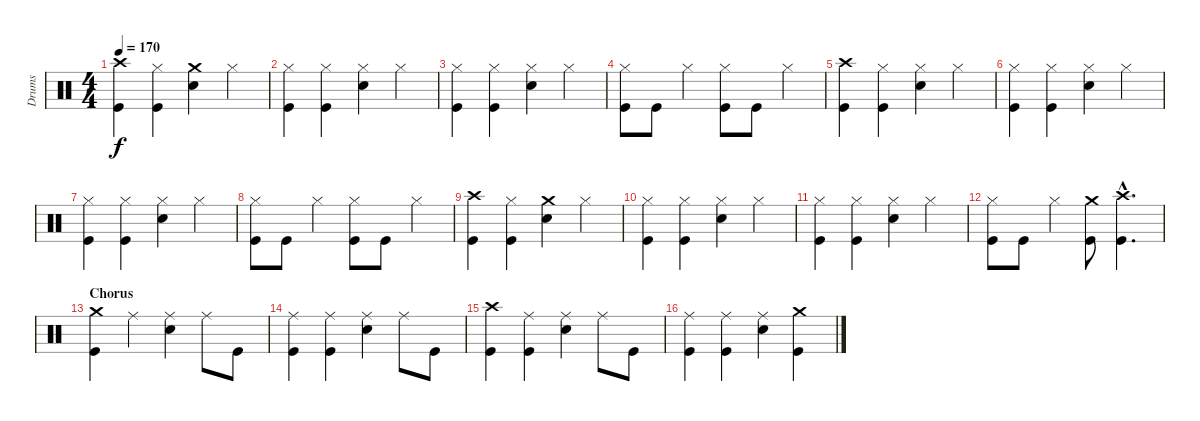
\track ("Drums" "Drums") {instrument percussion}
\staff {score}
\articulation defaults
\ts (4 4)
\tempo 170
\clef neutral
\ks c
("Crash high (hit)" "Kick (hit)").4{dy f} ("Hi-Hat (closed)" "Kick (hit)").4 ("Crash medium (hit)" "Snare (hit) 2").4 "Hi-Hat (closed)".4 |
("Hi-Hat (closed)" "Kick (hit)").4 ("Hi-Hat (closed)" "Kick (hit)").4 ("Hi-Hat (closed)" "Snare (hit) 2").4 "Hi-Hat (closed)".4 |
("Hi-Hat (closed)" "Kick (hit)").4 ("Hi-Hat (closed)" "Kick (hit)").4 ("Hi-Hat (closed)" "Snare (hit) 2").4 "Hi-Hat (closed)".4 |
("Hi-Hat (closed)" "Kick (hit)").8 "Kick (hit)".8 "Hi-Hat (closed)".4 ("Hi-Hat (closed)" "Kick (hit)").8 "Kick (hit)".8 "Hi-Hat (closed)".4 |
("Crash high (hit)" "Kick (hit)").4 ("Hi-Hat (closed)" "Kick (hit)").4 ("Hi-Hat (closed)" "Snare (hit) 2").4 "Hi-Hat (closed)".4 |
("Hi-Hat (closed)" "Kick (hit)").4 ("Hi-Hat (closed)" "Kick (hit)").4 ("Hi-Hat (closed)" "Snare (hit) 2").4 "Hi-Hat (closed)".4 |
("Hi-Hat (closed)" "Kick (hit)").4 ("Hi-Hat (closed)" "Kick (hit)").4 ("Hi-Hat (closed)" "Snare (hit) 2").4 "Hi-Hat (closed)".4 |
("Hi-Hat (closed)" "Kick (hit)").8 "Kick (hit)".8 "Hi-Hat (closed)".4 ("Hi-Hat (closed)" "Kick (hit)").8 "Kick (hit)".8 "Hi-Hat (closed)".4 |
("Crash high (hit)" "Kick (hit)").4 ("Hi-Hat (closed)" "Kick (hit)").4 ("Crash medium (hit)" "Snare (hit) 2").4 "Hi-Hat (closed)".4 |
("Hi-Hat (closed)" "Kick (hit)").4 ("Hi-Hat (closed)" "Kick (hit)").4 ("Hi-Hat (closed)" "Snare (hit) 2").4 "Hi-Hat (closed)".4 |
("Hi-Hat (closed)" "Kick (hit)").4 ("Hi-Hat (closed)" "Kick (hit)").4 ("Hi-Hat (closed)" "Snare (hit) 2").4 "Hi-Hat (closed)".4 |
("Hi-Hat (closed)" "Kick (hit)").8 "Kick (hit)".8 "Hi-Hat (closed)".4 ("Crash medium (hit)" "Kick (hit)").8 ("Crash high (hit)"{hac} "Kick (hit)"{hac}).4{d} |
\section ("" "Chorus")
("Crash medium (hit)" "Kick (hit)").4 "Ride (middle)".4 ("Ride (middle)" "Snare (hit) 2").4 "Ride (middle)".8 "Kick (hit)".8 |
("Ride (middle)" "Kick (hit)").4 ("Ride (middle)" "Kick (hit)").4 ("Ride (middle)" "Snare (hit) 2").4 "Ride (middle)".8 "Kick (hit)".8 |
("Crash high (hit)" "Kick (hit)").4 ("Ride (middle)" "Kick (hit)").4 ("Ride (middle)" "Snare (hit) 2").4 "Ride (middle)".8 "Kick (hit)".8 |
("Ride (middle)" "Kick (hit)").4 ("Ride (middle)" "Kick (hit)").4 ("Ride (middle)" "Snare (hit) 2").4 ("Crash medium (hit)" "Kick (hit)").4
